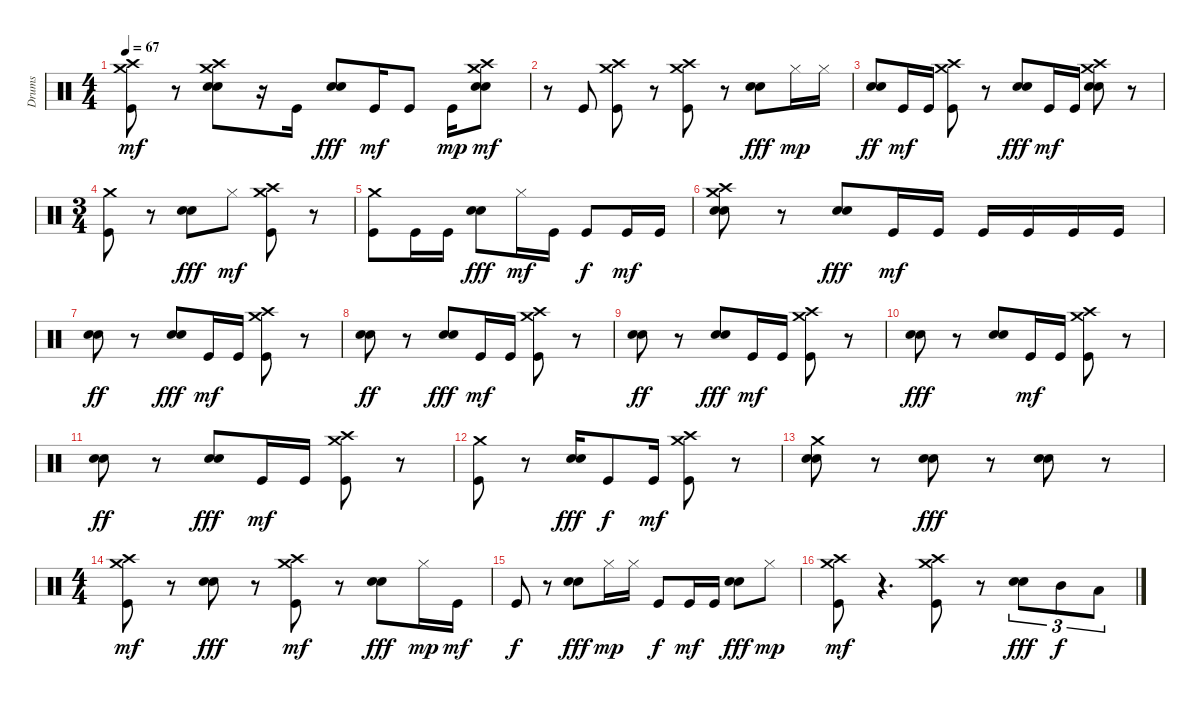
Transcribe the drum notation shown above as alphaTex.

\track ("Drums" "Drums") {instrument percussion}
\staff {score}
\articulation defaults
\ts (4 4)
\tempo 67
\clef neutral
\ks c
("Kick (hit)" "Crash high (hit)" "Crash medium (hit)").8{dy mf} r.8 ("Snare (hit) 2" "Electric Snare (hit)" "Crash high (hit)" "Crash medium (hit)").8 r.16 "Kick (hit)".16 ("Snare (hit) 2" "Electric Snare (hit)").8{dy fff} "Kick (hit)".16{dy mf} "Kick (hit)".8 "Kick (hit)".16{dy mp} ("Snare (hit) 2" "Electric Snare (hit)" "Crash high (hit)" "Crash medium (hit)").8{dy mf} |
r.8 "Kick (hit)".8 ("Kick (hit)" "Crash high (hit)" "Crash medium (hit)").8 r.8 ("Kick (hit)" "Crash high (hit)" "Crash medium (hit)").8 r.8 ("Snare (hit) 2" "Electric Snare (hit)").8{dy fff} "Hi-Hat (closed)".16{dy mp} "Hi-Hat (closed)".16 |
("Snare (hit) 2" "Electric Snare (hit)").8{dy ff} "Kick (hit)".16{dy mf} "Kick (hit)".16 ("Kick (hit)" "Crash high (hit)" "Crash medium (hit)").8 r.8 ("Snare (hit) 2" "Electric Snare (hit)").8{dy fff} "Kick (hit)".16{dy mf} "Kick (hit)".16 ("Snare (hit) 2" "Electric Snare (hit)" "Crash high (hit)" "Crash medium (hit)").8 r.8 |
\ts (3 4)
("Kick (hit)" "Crash medium (hit)").8 r.8 ("Snare (hit) 2" "Electric Snare (hit)").8{dy fff} "Hi-Hat (closed)".8{dy mf} ("Kick (hit)" "Crash high (hit)" "Crash medium (hit)").8 r.8 |
("Kick (hit)" "Crash medium (hit)").8 "Kick (hit)".16 "Kick (hit)".16 ("Snare (hit) 2" "Electric Snare (hit)").8{dy fff} "Hi-Hat (closed)".16{dy mf} "Kick (hit)".16 "Kick (hit)".8{dy f} "Kick (hit)".16{dy mf} "Kick (hit)".16 |
("Snare (hit) 2" "Electric Snare (hit)" "Crash high (hit)" "Crash medium (hit)").8 r.8 ("Snare (hit) 2" "Electric Snare (hit)").8{dy fff} "Kick (hit)".16{dy mf} "Kick (hit)".16 "Kick (hit)".16 "Kick (hit)".16 "Kick (hit)".16 "Kick (hit)".16 |
("Snare (hit) 2" "Electric Snare (hit)").8{dy ff} r.8 ("Snare (hit) 2" "Electric Snare (hit)").8{dy fff} "Kick (hit)".16{dy mf} "Kick (hit)".16 ("Kick (hit)" "Crash high (hit)" "Crash medium (hit)").8 r.8 |
("Snare (hit) 2" "Electric Snare (hit)").8{dy ff} r.8 ("Snare (hit) 2" "Electric Snare (hit)").8{dy fff} "Kick (hit)".16{dy mf} "Kick (hit)".16 ("Kick (hit)" "Crash high (hit)" "Crash medium (hit)").8 r.8 |
("Snare (hit) 2" "Electric Snare (hit)").8{dy ff} r.8 ("Snare (hit) 2" "Electric Snare (hit)").8{dy fff} "Kick (hit)".16{dy mf} "Kick (hit)".16 ("Kick (hit)" "Crash high (hit)" "Crash medium (hit)").8 r.8 |
("Snare (hit) 2" "Electric Snare (hit)").8{dy fff} r.8 ("Snare (hit) 2" "Electric Snare (hit)").8 "Kick (hit)".16{dy mf} "Kick (hit)".16 ("Kick (hit)" "Crash high (hit)" "Crash medium (hit)").8 r.8 |
("Snare (hit) 2" "Electric Snare (hit)").8{dy ff} r.8 ("Snare (hit) 2" "Electric Snare (hit)").8{dy fff} "Kick (hit)".16{dy mf} "Kick (hit)".16 ("Kick (hit)" "Crash high (hit)" "Crash medium (hit)").8 r.8 |
("Kick (hit)" "Crash medium (hit)").8 r.8 ("Snare (hit) 2" "Electric Snare (hit)").16{dy fff} "Kick (hit)".8{dy f} "Kick (hit)".16{dy mf} ("Kick (hit)" "Crash high (hit)" "Crash medium (hit)").8 r.8 |
("Snare (hit) 2" "Electric Snare (hit)" "Crash medium (hit)").8 r.8 ("Snare (hit) 2" "Electric Snare (hit)").8{dy fff} r.8 ("Snare (hit) 2" "Electric Snare (hit)").8 r.8 |
\ts (4 4)
("Kick (hit)" "Crash high (hit)" "Crash medium (hit)").8{dy mf} r.8 ("Snare (hit) 2" "Electric Snare (hit)").8{dy fff} r.8 ("Kick (hit)" "Crash high (hit)" "Crash medium (hit)").8{dy mf} r.8 ("Snare (hit) 2" "Electric Snare (hit)").8{dy fff} "Hi-Hat (closed)".16{dy mp} "Kick (hit)".16{dy mf} |
"Kick (hit)".8{dy f} r.8 ("Snare (hit) 2" "Electric Snare (hit)").8{dy fff} "Hi-Hat (closed)".16{dy mp} "Hi-Hat (closed)".16 "Kick (hit)".8{dy f} "Kick (hit)".16{dy mf} "Kick (hit)".16 ("Snare (hit) 2" "Electric Snare (hit)").8{dy fff} "Hi-Hat (closed)".8{dy mp} |
("Kick (hit)" "Crash high (hit)" "Crash medium (hit)").8{dy mf} r.4{d} ("Kick (hit)" "Crash high (hit)" "Crash medium (hit)").8 r.8 ("Snare (hit) 2" "Electric Snare (hit)").8{tu (3 2) dy fff} "Mid Tom (hit)".8{tu (3 2) dy f} "Low Tom (hit)".8{tu (3 2)}
